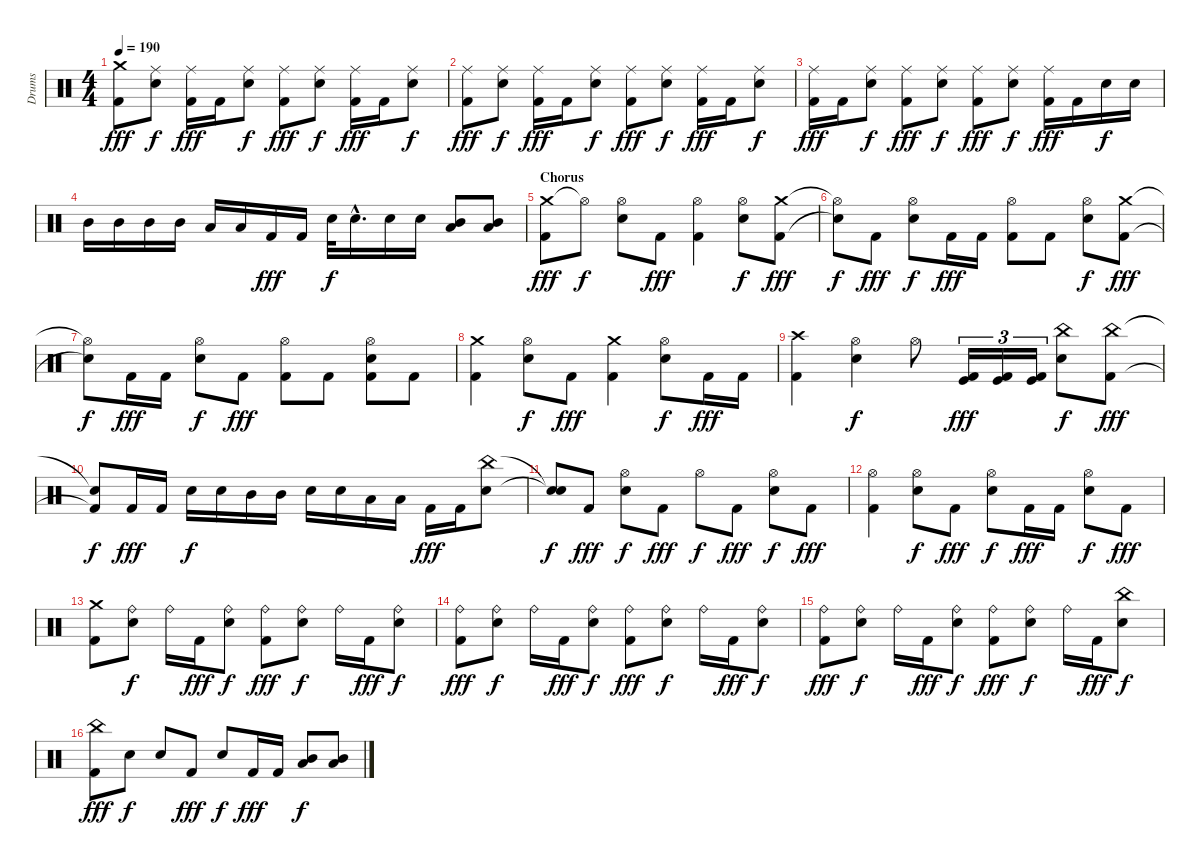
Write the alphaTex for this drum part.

\track ("Drums" "Drums") {instrument percussion}
\staff {score}
\articulation defaults
\ts (4 4)
\tempo 190
\clef neutral
\ks c
("Crash medium (hit)" "Kick (hit) 2").8{dy fff} ("Ride (middle)" "Snare (hit) 2").8{dy f} ("Ride (middle)" "Kick (hit) 2").16{dy fff} "Kick (hit) 2".16 ("Ride (middle)" "Snare (hit) 2").8{dy f} ("Ride (middle)" "Kick (hit) 2").8{dy fff} ("Ride (middle)" "Snare (hit) 2").8{dy f} ("Ride (middle)" "Kick (hit) 2").16{dy fff} "Kick (hit) 2".16 ("Ride (middle)" "Snare (hit) 2").8{dy f} |
("Ride (middle)" "Kick (hit) 2").8{dy fff} ("Ride (middle)" "Snare (hit) 2").8{dy f} ("Ride (middle)" "Kick (hit) 2").16{dy fff} "Kick (hit) 2".16 ("Ride (middle)" "Snare (hit) 2").8{dy f} ("Ride (middle)" "Kick (hit) 2").8{dy fff} ("Ride (middle)" "Snare (hit) 2").8{dy f} ("Ride (middle)" "Kick (hit) 2").16{dy fff} "Kick (hit) 2".16 ("Ride (middle)" "Snare (hit) 2").8{dy f} |
("Ride (middle)" "Kick (hit) 2").16{dy fff} "Kick (hit) 2".16 ("Ride (middle)" "Snare (hit) 2").8{dy f} ("Ride (middle)" "Kick (hit) 2").8{dy fff} ("Ride (middle)" "Snare (hit) 2").8{dy f} ("Ride (middle)" "Kick (hit) 2").8{dy fff} ("Ride (middle)" "Snare (hit) 2").8{dy f} ("Ride (middle)" "Kick (hit) 2").16{dy fff} "Kick (hit) 2".16 "Snare (hit) 2".16{dy f} "Snare (hit) 2".16 |
"Mid Tom (hit)".16 "Mid Tom (hit)".16 "Mid Tom (hit)".16 "Mid Tom (hit)".16 "Low Tom (hit)".16 "Low Tom (hit)".16 "Kick (hit) 2".16{dy fff} "Kick (hit) 2".16 "Snare (hit) 2".32{dy f} "Snare (hit) 2"{hac}.16{d} "Snare (hit) 2".16 "Snare (hit) 2".16 ("Mid Tom (hit)" "Low Tom (hit)").8 ("Mid Tom (hit)" "Low Tom (hit)").8 |
\section ("" "Chorus")
("Crash medium (hit)" "Kick (hit) 2").8{dy fff} "Hi-Hat (open)"{t}.8{dy f} ("Hi-Hat (open)" "Snare (hit) 2").8 "Kick (hit) 2".8{dy fff} ("Hi-Hat (open)" "Kick (hit) 2").4 ("Hi-Hat (open)" "Snare (hit) 2").8{dy f} ("Crash medium (hit)" "Kick (hit) 2").8{dy fff} |
("Hi-Hat (open)"{t} "Snare (hit)"{t}).8{dy f} "Kick (hit) 2".8{dy fff} ("Hi-Hat (open)" "Snare (hit) 2").8{dy f} "Kick (hit) 2".16{dy fff} "Kick (hit) 2".16 ("Hi-Hat (open)" "Kick (hit) 2").8 "Kick (hit) 2".8 ("Hi-Hat (open)" "Snare (hit) 2").8{dy f} ("Crash medium (hit)" "Kick (hit) 2").8{dy fff} |
("Hi-Hat (open)"{t} "Snare (hit)"{t}).8{dy f} "Kick (hit) 2".16{dy fff} "Kick (hit) 2".16 ("Hi-Hat (open)" "Snare (hit) 2").8{dy f} "Kick (hit) 2".8{dy fff} ("Hi-Hat (open)" "Kick (hit) 2").8 "Kick (hit) 2".8 ("Hi-Hat (open)" "Snare (hit) 2" "Kick (hit) 2").8 "Kick (hit) 2".8 |
("Crash medium (hit)" "Kick (hit) 2").4 ("Hi-Hat (open)" "Snare (hit) 2").8{dy f} "Kick (hit) 2".8{dy fff} ("Crash medium (hit)" "Kick (hit) 2").4 ("Hi-Hat (open)" "Snare (hit) 2").8{dy f} "Kick (hit) 2".16{dy fff} "Kick (hit) 2".16 |
("Crash high (hit)" "Kick (hit) 2").4 ("Hi-Hat (open)" "Snare (hit) 2").4{dy f} "Hi-Hat (open)".8 ("Kick (hit)" "Kick (hit) 2").16{tu (3 2) dy fff} ("Kick (hit)" "Kick (hit) 2").16{tu (3 2)} ("Kick (hit)" "Kick (hit) 2").16{tu (3 2)} ("China (hit)" "Snare (hit) 2").8{dy f} ("China (hit)" "Kick (hit) 2").8{dy fff} |
("Snare (hit)"{t} "Kick (hit) 2"{t}).8{dy f} "Kick (hit) 2".16{dy fff} "Kick (hit) 2".16 "Snare (hit) 2".16{dy f} "Snare (hit) 2".16 "Mid Tom (hit)".16 "Mid Tom (hit)".16 "Snare (hit) 2".16 "Snare (hit) 2".16 "Low Tom (hit)".16 "Low Tom (hit)".16 "Kick (hit) 2".16{dy fff} "Kick (hit) 2".16 ("China (hit)" "Snare (hit) 2").8 |
("Snare (hit)"{t} "Snare (hit)"{t}).8{dy f} "Kick (hit) 2".8{dy fff} ("Hi-Hat (open)" "Snare (hit) 2").8{dy f} "Kick (hit) 2".8{dy fff} "Hi-Hat (open)".8{dy f} "Kick (hit) 2".8{dy fff} ("Hi-Hat (open)" "Snare (hit) 2").8{dy f} "Kick (hit) 2".8{dy fff} |
("Hi-Hat (open)" "Kick (hit) 2").4 ("Hi-Hat (open)" "Snare (hit) 2").8{dy f} "Kick (hit) 2".8{dy fff} ("Hi-Hat (open)" "Snare (hit) 2").8{dy f} "Kick (hit) 2".16{dy fff} "Kick (hit) 2".16 ("Hi-Hat (open)" "Snare (hit) 2").8{dy f} "Kick (hit) 2".8{dy fff} |
("Crash medium (hit)" "Kick (hit) 2").8 ("Ride (bell)" "Snare (hit) 2").8{dy f} "Ride (bell)".16 "Kick (hit) 2".16{dy fff} ("Ride (bell)" "Snare (hit) 2").8{dy f} ("Ride (bell)" "Kick (hit) 2").8{dy fff} ("Ride (bell)" "Snare (hit) 2").8{dy f} "Ride (bell)".16 "Kick (hit) 2".16{dy fff} ("Ride (bell)" "Snare (hit) 2").8{dy f} |
("Ride (bell)" "Kick (hit) 2").8{dy fff} ("Ride (bell)" "Snare (hit) 2").8{dy f} "Ride (bell)".16 "Kick (hit) 2".16{dy fff} ("Ride (bell)" "Snare (hit) 2").8{dy f} ("Ride (bell)" "Kick (hit) 2").8{dy fff} ("Ride (bell)" "Snare (hit) 2").8{dy f} "Ride (bell)".16 "Kick (hit) 2".16{dy fff} ("Ride (bell)" "Snare (hit) 2").8{dy f} |
("Ride (bell)" "Kick (hit) 2").8{dy fff} ("Ride (bell)" "Snare (hit) 2").8{dy f} "Ride (bell)".16 "Kick (hit) 2".16{dy fff} ("Ride (bell)" "Snare (hit) 2").8{dy f} ("Ride (bell)" "Kick (hit) 2").8{dy fff} ("Ride (bell)" "Snare (hit) 2").8{dy f} "Ride (bell)".16 "Kick (hit) 2".16{dy fff} ("China (hit)" "Snare (hit) 2").8{dy f} |
("China (hit)" "Kick (hit) 2").8{dy fff} "Snare (hit) 2".8{dy f} "Snare (hit) 2".8 "Kick (hit) 2".8{dy fff} "Snare (hit) 2".8{dy f} "Kick (hit) 2".16{dy fff} "Kick (hit) 2".16 ("Mid Tom (hit)" "Low Tom (hit)").8{dy f} ("Mid Tom (hit)" "Low Tom (hit)").8
